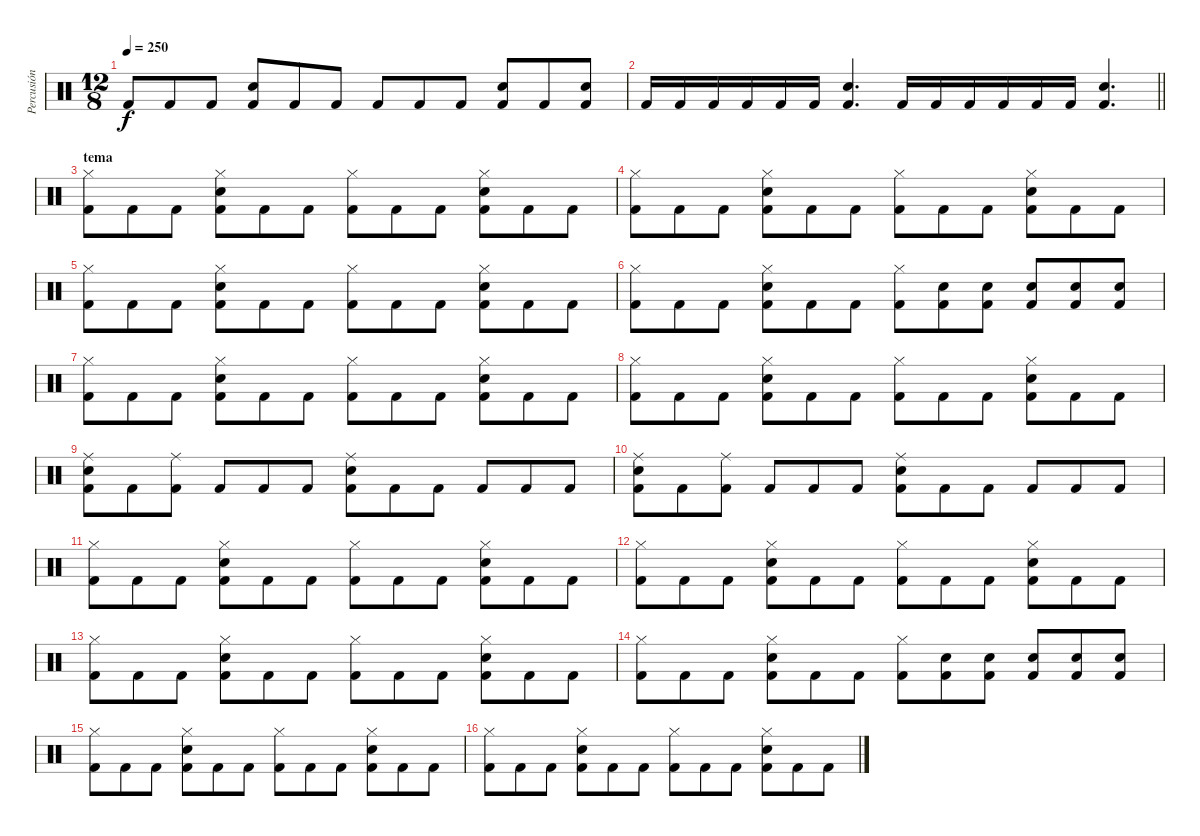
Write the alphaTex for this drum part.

\track ("Percusión" "Percusión") {instrument percussion}
\staff {score}
\articulation defaults
\ts (12 8)
\tempo 250
\clef neutral
\ks c "Kick (hit) 2".8{dy f} "Kick (hit) 2".8 "Kick (hit) 2".8
("Kick (hit) 2" "Snare (hit) 2").8 "Kick (hit) 2".8 "Kick (hit) 2".8 "Kick (hit) 2".8 "Kick (hit) 2".8 "Kick (hit) 2".8 ("Kick (hit) 2" "Snare (hit) 2").8 "Kick (hit) 2".8 ("Kick (hit) 2" "Snare (hit) 2").8 |
\barLineRight lightlight "Kick (hit) 2".16 "Kick (hit) 2".16 "Kick (hit) 2".16 "Kick (hit) 2".16 "Kick (hit) 2".16 "Kick (hit) 2".16
("Kick (hit) 2" "Snare (hit) 2").4{d} "Kick (hit) 2".16 "Kick (hit) 2".16 "Kick (hit) 2".16 "Kick (hit) 2".16 "Kick (hit) 2".16 "Kick (hit) 2".16 ("Kick (hit) 2" "Snare (hit) 2").4{d} |
\section ("" "tema")
("Kick (hit) 2" "Hi-Hat (closed)").8 "Kick (hit) 2".8 "Kick (hit) 2".8 ("Kick (hit) 2" "Hi-Hat (closed)" "Snare (hit) 2").8 "Kick (hit) 2".8 "Kick (hit) 2".8 ("Kick (hit) 2" "Hi-Hat (closed)").8 "Kick (hit) 2".8 "Kick (hit) 2".8 ("Kick (hit) 2" "Hi-Hat (closed)" "Snare (hit) 2").8 "Kick (hit) 2".8 "Kick (hit) 2".8 |
("Kick (hit) 2" "Hi-Hat (closed)").8 "Kick (hit) 2".8 "Kick (hit) 2".8 ("Kick (hit) 2" "Hi-Hat (closed)" "Snare (hit) 2").8 "Kick (hit) 2".8 "Kick (hit) 2".8 ("Kick (hit) 2" "Hi-Hat (closed)").8 "Kick (hit) 2".8 "Kick (hit) 2".8 ("Kick (hit) 2" "Hi-Hat (closed)" "Snare (hit) 2").8 "Kick (hit) 2".8 "Kick (hit) 2".8 |
("Kick (hit) 2" "Hi-Hat (closed)").8 "Kick (hit) 2".8 "Kick (hit) 2".8 ("Kick (hit) 2" "Hi-Hat (closed)" "Snare (hit) 2").8 "Kick (hit) 2".8 "Kick (hit) 2".8 ("Kick (hit) 2" "Hi-Hat (closed)").8 "Kick (hit) 2".8 "Kick (hit) 2".8 ("Kick (hit) 2" "Hi-Hat (closed)" "Snare (hit) 2").8 "Kick (hit) 2".8 "Kick (hit) 2".8 |
("Kick (hit) 2" "Hi-Hat (closed)").8 "Kick (hit) 2".8 "Kick (hit) 2".8 ("Kick (hit) 2" "Hi-Hat (closed)" "Snare (hit) 2").8 "Kick (hit) 2".8 "Kick (hit) 2".8 ("Kick (hit) 2" "Hi-Hat (closed)").8 ("Kick (hit) 2" "Snare (hit) 2").8 ("Kick (hit) 2" "Snare (hit) 2").8 ("Kick (hit) 2" "Snare (hit) 2").8 ("Kick (hit) 2" "Snare (hit) 2").8 ("Kick (hit) 2" "Snare (hit) 2").8 |
("Kick (hit) 2" "Hi-Hat (closed)").8 "Kick (hit) 2".8 "Kick (hit) 2".8 ("Kick (hit) 2" "Hi-Hat (closed)" "Snare (hit) 2").8 "Kick (hit) 2".8 "Kick (hit) 2".8 ("Kick (hit) 2" "Hi-Hat (closed)").8 "Kick (hit) 2".8 "Kick (hit) 2".8 ("Kick (hit) 2" "Hi-Hat (closed)" "Snare (hit) 2").8 "Kick (hit) 2".8 "Kick (hit) 2".8 |
("Kick (hit) 2" "Hi-Hat (closed)").8 "Kick (hit) 2".8 "Kick (hit) 2".8 ("Kick (hit) 2" "Hi-Hat (closed)" "Snare (hit) 2").8 "Kick (hit) 2".8 "Kick (hit) 2".8 ("Kick (hit) 2" "Hi-Hat (closed)").8 "Kick (hit) 2".8 "Kick (hit) 2".8 ("Kick (hit) 2" "Hi-Hat (closed)" "Snare (hit) 2").8 "Kick (hit) 2".8 "Kick (hit) 2".8 |
("Kick (hit) 2" "Ride (middle)" "Snare (hit) 2").8 "Kick (hit) 2".8 ("Kick (hit) 2" "Ride (middle)").8 "Kick (hit) 2".8 "Kick (hit) 2".8 "Kick (hit) 2".8 ("Kick (hit) 2" "Ride (middle)" "Snare (hit) 2").8 "Kick (hit) 2".8 "Kick (hit) 2".8 "Kick (hit) 2".8 "Kick (hit) 2".8 "Kick (hit) 2".8 |
("Kick (hit) 2" "Ride (middle)" "Snare (hit) 2").8 "Kick (hit) 2".8 ("Kick (hit) 2" "Ride (middle)").8 "Kick (hit) 2".8 "Kick (hit) 2".8 "Kick (hit) 2".8 ("Kick (hit) 2" "Ride (middle)" "Snare (hit) 2").8 "Kick (hit) 2".8 "Kick (hit) 2".8 "Kick (hit) 2".8 "Kick (hit) 2".8 "Kick (hit) 2".8 |
("Kick (hit) 2" "Hi-Hat (closed)").8 "Kick (hit) 2".8 "Kick (hit) 2".8 ("Kick (hit) 2" "Hi-Hat (closed)" "Snare (hit) 2").8 "Kick (hit) 2".8 "Kick (hit) 2".8 ("Kick (hit) 2" "Hi-Hat (closed)").8 "Kick (hit) 2".8 "Kick (hit) 2".8 ("Kick (hit) 2" "Hi-Hat (closed)" "Snare (hit) 2").8 "Kick (hit) 2".8 "Kick (hit) 2".8 |
("Kick (hit) 2" "Hi-Hat (closed)").8 "Kick (hit) 2".8 "Kick (hit) 2".8 ("Kick (hit) 2" "Hi-Hat (closed)" "Snare (hit) 2").8 "Kick (hit) 2".8 "Kick (hit) 2".8 ("Kick (hit) 2" "Hi-Hat (closed)").8 "Kick (hit) 2".8 "Kick (hit) 2".8 ("Kick (hit) 2" "Hi-Hat (closed)" "Snare (hit) 2").8 "Kick (hit) 2".8 "Kick (hit) 2".8 |
("Kick (hit) 2" "Hi-Hat (closed)").8 "Kick (hit) 2".8 "Kick (hit) 2".8 ("Kick (hit) 2" "Hi-Hat (closed)" "Snare (hit) 2").8 "Kick (hit) 2".8 "Kick (hit) 2".8 ("Kick (hit) 2" "Hi-Hat (closed)").8 "Kick (hit) 2".8 "Kick (hit) 2".8 ("Kick (hit) 2" "Hi-Hat (closed)" "Snare (hit) 2").8 "Kick (hit) 2".8 "Kick (hit) 2".8 |
("Kick (hit) 2" "Hi-Hat (closed)").8 "Kick (hit) 2".8 "Kick (hit) 2".8 ("Kick (hit) 2" "Hi-Hat (closed)" "Snare (hit) 2").8 "Kick (hit) 2".8 "Kick (hit) 2".8 ("Kick (hit) 2" "Hi-Hat (closed)").8 ("Kick (hit) 2" "Snare (hit) 2").8 ("Kick (hit) 2" "Snare (hit) 2").8 ("Kick (hit) 2" "Snare (hit) 2").8 ("Kick (hit) 2" "Snare (hit) 2").8 ("Kick (hit) 2" "Snare (hit) 2").8 |
("Kick (hit) 2" "Hi-Hat (closed)").8 "Kick (hit) 2".8 "Kick (hit) 2".8 ("Kick (hit) 2" "Hi-Hat (closed)" "Snare (hit) 2").8 "Kick (hit) 2".8 "Kick (hit) 2".8 ("Kick (hit) 2" "Hi-Hat (closed)").8 "Kick (hit) 2".8 "Kick (hit) 2".8 ("Kick (hit) 2" "Hi-Hat (closed)" "Snare (hit) 2").8 "Kick (hit) 2".8 "Kick (hit) 2".8 |
("Kick (hit) 2" "Hi-Hat (closed)").8 "Kick (hit) 2".8 "Kick (hit) 2".8 ("Kick (hit) 2" "Hi-Hat (closed)" "Snare (hit) 2").8 "Kick (hit) 2".8 "Kick (hit) 2".8 ("Kick (hit) 2" "Hi-Hat (closed)").8 "Kick (hit) 2".8 "Kick (hit) 2".8 ("Kick (hit) 2" "Hi-Hat (closed)" "Snare (hit) 2").8 "Kick (hit) 2".8 "Kick (hit) 2".8
